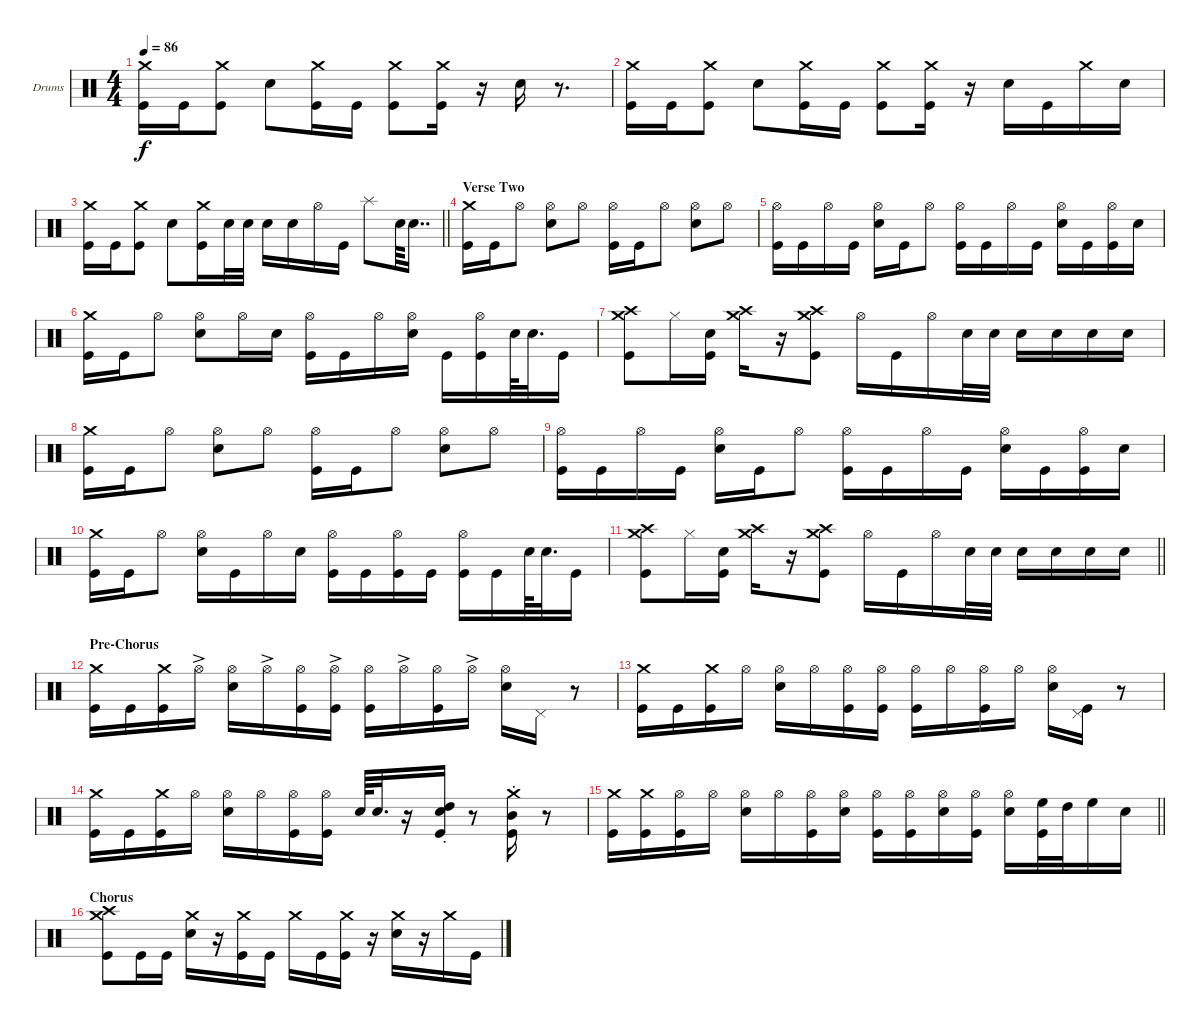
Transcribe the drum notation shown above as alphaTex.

\bracketExtendMode groupsimilarinstruments
\firstSystemTrackNameOrientation horizontal
\otherSystemsTrackNameOrientation horizontal
\track ("Drumkit" "Drums") {instrument percussion}
\staff {score}
\articulation defaults
\ts (4 4)
\tempo 86
\clef neutral
\ks c
("Crash medium (hit)" "Kick (hit)").16{dy f} "Kick (hit)".16 ("Crash medium (hit)" "Kick (hit)").8 "Snare (hit) 2".8 ("Crash medium (hit)" "Kick (hit)").16 "Kick (hit)".16 ("Crash medium (hit)" "Kick (hit)").8 ("Crash medium (hit)" "Kick (hit)").16 r.16 "Snare (hit) 2".16 r.8{d} |
("Crash medium (hit)" "Kick (hit)").16 "Kick (hit)".16 ("Crash medium (hit)" "Kick (hit)").8 "Snare (hit) 2".8 ("Crash medium (hit)" "Kick (hit)").16 "Kick (hit)".16 ("Crash medium (hit)" "Kick (hit)").8 ("Crash medium (hit)" "Kick (hit)").16 r.16 "Snare (hit) 2".16 "Kick (hit)".16 "Crash medium (hit)".16 "Snare (hit) 2".16 |
\barLineRight lightlight
("Crash medium (hit)" "Kick (hit)").16 "Kick (hit)".16 ("Crash medium (hit)" "Kick (hit)").8 "Snare (hit) 2".8 ("Crash medium (hit)" "Kick (hit)").16 "Snare (hit) 2".32 "Snare (hit) 2".32 "Snare (hit) 2".16 "Snare (hit) 2".16 "Hi-Hat (open)".16 "Kick (hit)".16 "Splash (hit)".8 "Snare (hit) 2".64 "Snare (hit) 2".16{dd} |
\section ("" "Verse Two")
("Crash medium (hit)" "Kick (hit)").16 "Kick (hit)".16 "Hi-Hat (open)".8 ("Hi-Hat (open)" "Snare (hit) 2").8 "Hi-Hat (open)".8 ("Hi-Hat (open)" "Kick (hit)").16 "Kick (hit)".16 "Hi-Hat (open)".8 ("Hi-Hat (open)" "Snare (hit) 2").8 "Hi-Hat (open)".8 |
("Hi-Hat (open)" "Kick (hit)").16 "Kick (hit)".16 "Hi-Hat (open)".16 "Kick (hit)".16 ("Hi-Hat (open)" "Snare (hit) 2").16 "Kick (hit)".16 "Hi-Hat (open)".8 ("Hi-Hat (open)" "Kick (hit)").16 "Kick (hit)".16 "Hi-Hat (open)".16 "Kick (hit)".16 ("Hi-Hat (open)" "Snare (hit) 2").16 "Kick (hit)".16 ("Hi-Hat (open)" "Kick (hit)").16 "Snare (hit) 2".16 |
("Crash medium (hit)" "Kick (hit)").16 "Kick (hit)".16 "Hi-Hat (open)".8 ("Hi-Hat (open)" "Snare (hit) 2").8 "Hi-Hat (open)".16 "Snare (hit) 2".16 ("Hi-Hat (open)" "Kick (hit)").16 "Kick (hit)".16 "Hi-Hat (open)".16 ("Hi-Hat (open)" "Snare (hit) 2").16 "Kick (hit)".16 ("Hi-Hat (open)" "Kick (hit)").16 "Snare (hit) 2".64 "Snare (hit) 2".32{d} "Kick (hit)".16 |
("Crash medium (hit)" "Crash high (hit)" "Kick (hit)").8 "Hi-Hat (closed)".16 ("Snare (hit) 2" "Kick (hit)").16 ("Crash medium (hit)" "Crash high (hit)").16 r.16 ("Crash medium (hit)" "Crash high (hit)" "Kick (hit)").8 "Hi-Hat (open)".16 "Kick (hit)".16 "Hi-Hat (open)".16 "Snare (hit) 2".32 "Snare (hit) 2".32 "Snare (hit) 2".16 "Snare (hit) 2".16 "Snare (hit) 2".16 "Snare (hit) 2".16 |
("Crash medium (hit)" "Kick (hit)").16 "Kick (hit)".16 "Hi-Hat (open)".8 ("Hi-Hat (open)" "Snare (hit) 2").8 "Hi-Hat (open)".8 ("Hi-Hat (open)" "Kick (hit)").16 "Kick (hit)".16 "Hi-Hat (open)".8 ("Hi-Hat (open)" "Snare (hit) 2").8 "Hi-Hat (open)".8 |
("Hi-Hat (open)" "Kick (hit)").16 "Kick (hit)".16 "Hi-Hat (open)".16 "Kick (hit)".16 ("Hi-Hat (open)" "Snare (hit) 2").16 "Kick (hit)".16 "Hi-Hat (open)".8 ("Hi-Hat (open)" "Kick (hit)").16 "Kick (hit)".16 "Hi-Hat (open)".16 "Kick (hit)".16 ("Hi-Hat (open)" "Snare (hit) 2").16 "Kick (hit)".16 ("Hi-Hat (open)" "Kick (hit)").16 "Snare (hit) 2".16 |
("Crash medium (hit)" "Kick (hit)").16 "Kick (hit)".16 "Hi-Hat (open)".8 ("Hi-Hat (open)" "Snare (hit) 2").16 "Kick (hit)".16 "Hi-Hat (open)".16 "Snare (hit) 2".16 ("Hi-Hat (open)" "Kick (hit)").16 "Kick (hit)".16 ("Hi-Hat (open)" "Kick (hit)").16 "Kick (hit)".16 ("Hi-Hat (open)" "Kick (hit)").16 "Kick (hit)".16 "Snare (hit) 2".64 "Snare (hit) 2".32{d} "Kick (hit)".16 |
\barLineRight lightlight
("Crash medium (hit)" "Crash high (hit)" "Kick (hit)").8 "Hi-Hat (closed)".16 ("Snare (hit) 2" "Kick (hit)").16 ("Crash medium (hit)" "Crash high (hit)").16 r.16 ("Crash medium (hit)" "Crash high (hit)" "Kick (hit)").8 "Hi-Hat (open)".16 "Kick (hit)".16 "Hi-Hat (open)".16 "Snare (hit) 2".32 "Snare (hit) 2".32 "Snare (hit) 2".16 "Snare (hit) 2".16 "Snare (hit) 2".16 "Snare (hit) 2".16 |
\section ("" "Pre-Chorus")
("Crash medium (hit)" "Kick (hit)").16 "Kick (hit)".16 ("Crash medium (hit)" "Kick (hit)").16 "Hi-Hat (open)"{ac}.16 ("Hi-Hat (open)" "Snare (hit) 2").16 "Hi-Hat (open)"{ac}.16 ("Hi-Hat (open)" "Kick (hit)").16 ("Hi-Hat (open)"{ac} "Kick (hit)").16 ("Hi-Hat (open)" "Kick (hit)").16 "Hi-Hat (open)"{ac}.16 ("Hi-Hat (open)" "Kick (hit)").16 "Hi-Hat (open)"{ac}.16 ("Hi-Hat (open)" "Snare (hit) 2").16 "Pedal Hi-Hat (hit)".16 r.8 |
("Crash medium (hit)" "Kick (hit)").16 "Kick (hit)".16 ("Crash medium (hit)" "Kick (hit)").16 "Hi-Hat (open)".16 ("Hi-Hat (open)" "Snare (hit) 2").16 "Hi-Hat (open)".16 ("Hi-Hat (open)" "Kick (hit)").16 ("Hi-Hat (open)" "Kick (hit)").16 ("Hi-Hat (open)" "Kick (hit)").16 "Hi-Hat (open)".16 ("Hi-Hat (open)" "Kick (hit)").16 "Hi-Hat (open)".16 ("Hi-Hat (open)" "Snare (hit) 2").16 ("Pedal Hi-Hat (hit)" "Kick (hit)").16 r.8 |
("Crash medium (hit)" "Kick (hit)").16 "Kick (hit)".16 ("Crash medium (hit)" "Kick (hit)").16 "Hi-Hat (open)".16 ("Hi-Hat (open)" "Snare (hit) 2").16 "Hi-Hat (open)".16 ("Hi-Hat (open)" "Kick (hit)").16 ("Hi-Hat (open)" "Kick (hit)").16 "Snare (hit) 2".64 "Snare (hit) 2".32{d} r.16 ("Snare (hit) 2"{st} "High Tom (hit)"{st} "Kick (hit)"{st}).16 r.8 ("Crash medium (hit)" "Mid Tom (hit)"{st} "Kick (hit)").16 r.8 |
\barLineRight lightlight
("Crash medium (hit)" "Kick (hit)").16 ("Crash medium (hit)" "Kick (hit)").16 ("Hi-Hat (open)" "Kick (hit)").16 "Hi-Hat (open)".16 ("Hi-Hat (open)" "Snare (hit) 2").16 "Hi-Hat (open)".16 ("Hi-Hat (open)" "Kick (hit)").16 ("Hi-Hat (open)" "Snare (hit) 2").16 ("Hi-Hat (open)" "Kick (hit)").16 ("Hi-Hat (open)" "Kick (hit)").16 ("Hi-Hat (open)" "Snare (hit) 2").16 ("Hi-Hat (open)" "Kick (hit)").16 ("Hi-Hat (open)" "Snare (hit) 2").16 ("High Floor Tom (hit)" "Kick (hit)").32 "High Tom (hit)".32 "High Floor Tom (hit)".16 "Snare (hit) 2".16 |
\section ("" "Chorus")
("Crash medium (hit)" "Crash high (hit)" "Kick (hit)").8 "Kick (hit)".16 "Kick (hit)".16 ("Crash medium (hit)" "Snare (hit) 2").16 r.16 ("Crash medium (hit)" "Kick (hit)").16 "Kick (hit)".16 "Crash medium (hit)".16 "Kick (hit)".16 ("Crash medium (hit)" "Kick (hit)").16 r.16 ("Crash medium (hit)" "Snare (hit) 2").16 r.16 "Crash medium (hit)".16 "Kick (hit)".16
